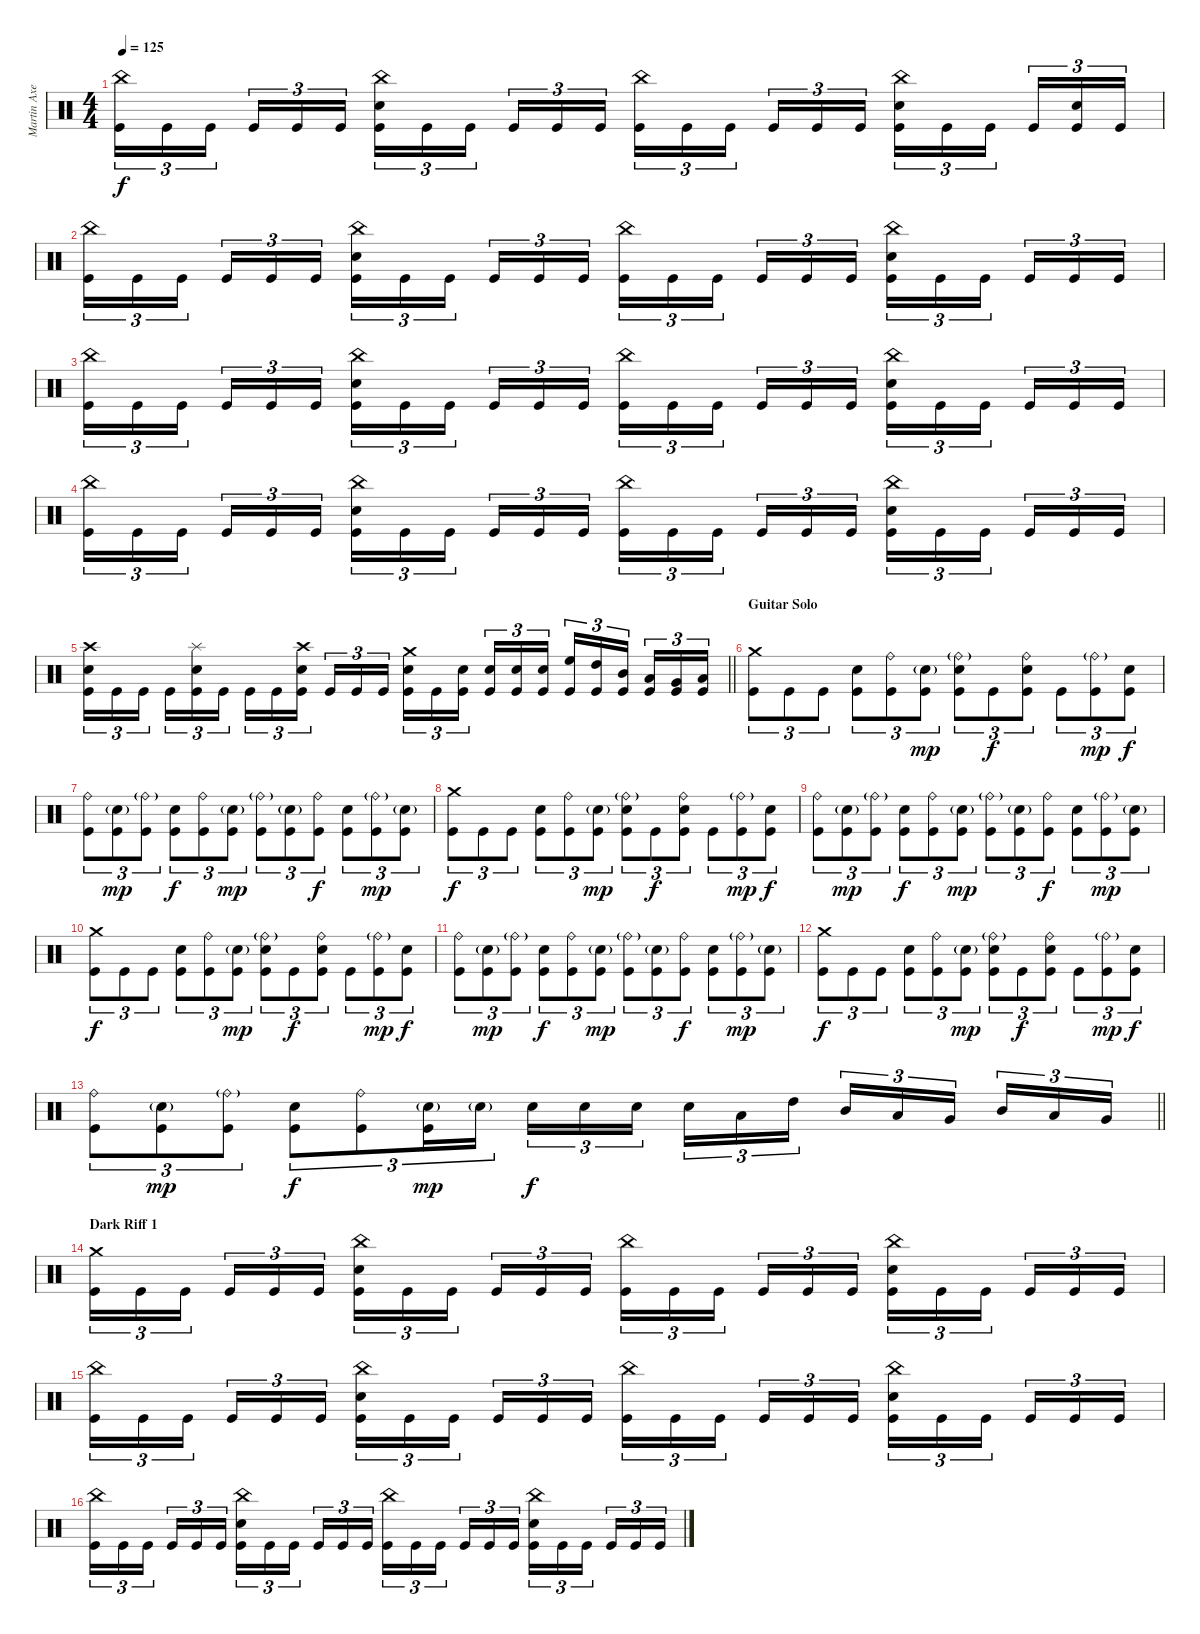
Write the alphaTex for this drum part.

\track ("Martin Axenrot" "Martin Axe") {instrument percussion}
\staff {score}
\articulation defaults
\ts (4 4)
\tempo 125
\clef neutral
\ks c
("China (hit)" "Kick (hit)").16{tu (3 2) dy f} "Kick (hit)".16{tu (3 2)} "Kick (hit)".16{tu (3 2) beam splitsecondary} "Kick (hit)".16{tu (3 2)} "Kick (hit)".16{tu (3 2)} "Kick (hit)".16{tu (3 2)} ("China (hit)" "Snare (hit) 2" "Kick (hit)").16{tu (3 2)} "Kick (hit)".16{tu (3 2)} "Kick (hit)".16{tu (3 2) beam splitsecondary} "Kick (hit)".16{tu (3 2)} "Kick (hit)".16{tu (3 2)} "Kick (hit)".16{tu (3 2)} ("China (hit)" "Kick (hit)").16{tu (3 2)} "Kick (hit)".16{tu (3 2)} "Kick (hit)".16{tu (3 2) beam splitsecondary} "Kick (hit)".16{tu (3 2)} "Kick (hit)".16{tu (3 2)} "Kick (hit)".16{tu (3 2)} ("China (hit)" "Snare (hit) 2" "Kick (hit)").16{tu (3 2)} "Kick (hit)".16{tu (3 2)} "Kick (hit)".16{tu (3 2) beam splitsecondary} "Kick (hit)".16{tu (3 2)} ("Snare (hit) 2" "Kick (hit)").16{tu (3 2)} "Kick (hit)".16{tu (3 2)} |
("China (hit)" "Kick (hit)").16{tu (3 2)} "Kick (hit)".16{tu (3 2)} "Kick (hit)".16{tu (3 2) beam splitsecondary} "Kick (hit)".16{tu (3 2)} "Kick (hit)".16{tu (3 2)} "Kick (hit)".16{tu (3 2)} ("China (hit)" "Snare (hit) 2" "Kick (hit)").16{tu (3 2)} "Kick (hit)".16{tu (3 2)} "Kick (hit)".16{tu (3 2) beam splitsecondary} "Kick (hit)".16{tu (3 2)} "Kick (hit)".16{tu (3 2)} "Kick (hit)".16{tu (3 2)} ("China (hit)" "Kick (hit)").16{tu (3 2)} "Kick (hit)".16{tu (3 2)} "Kick (hit)".16{tu (3 2) beam splitsecondary} "Kick (hit)".16{tu (3 2)} "Kick (hit)".16{tu (3 2)} "Kick (hit)".16{tu (3 2)} ("China (hit)" "Snare (hit) 2" "Kick (hit)").16{tu (3 2)} "Kick (hit)".16{tu (3 2)} "Kick (hit)".16{tu (3 2) beam splitsecondary} "Kick (hit)".16{tu (3 2)} "Kick (hit)".16{tu (3 2)} "Kick (hit)".16{tu (3 2)} |
("China (hit)" "Kick (hit)").16{tu (3 2)} "Kick (hit)".16{tu (3 2)} "Kick (hit)".16{tu (3 2) beam splitsecondary} "Kick (hit)".16{tu (3 2)} "Kick (hit)".16{tu (3 2)} "Kick (hit)".16{tu (3 2)} ("China (hit)" "Snare (hit) 2" "Kick (hit)").16{tu (3 2)} "Kick (hit)".16{tu (3 2)} "Kick (hit)".16{tu (3 2) beam splitsecondary} "Kick (hit)".16{tu (3 2)} "Kick (hit)".16{tu (3 2)} "Kick (hit)".16{tu (3 2)} ("China (hit)" "Kick (hit)").16{tu (3 2)} "Kick (hit)".16{tu (3 2)} "Kick (hit)".16{tu (3 2) beam splitsecondary} "Kick (hit)".16{tu (3 2)} "Kick (hit)".16{tu (3 2)} "Kick (hit)".16{tu (3 2)} ("China (hit)" "Snare (hit) 2" "Kick (hit)").16{tu (3 2)} "Kick (hit)".16{tu (3 2)} "Kick (hit)".16{tu (3 2) beam splitsecondary} "Kick (hit)".16{tu (3 2)} "Kick (hit)".16{tu (3 2)} "Kick (hit)".16{tu (3 2)} |
("China (hit)" "Kick (hit)").16{tu (3 2)} "Kick (hit)".16{tu (3 2)} "Kick (hit)".16{tu (3 2) beam splitsecondary} "Kick (hit)".16{tu (3 2)} "Kick (hit)".16{tu (3 2)} "Kick (hit)".16{tu (3 2)} ("China (hit)" "Snare (hit) 2" "Kick (hit)").16{tu (3 2)} "Kick (hit)".16{tu (3 2)} "Kick (hit)".16{tu (3 2) beam splitsecondary} "Kick (hit)".16{tu (3 2)} "Kick (hit)".16{tu (3 2)} "Kick (hit)".16{tu (3 2)} ("China (hit)" "Kick (hit)").16{tu (3 2)} "Kick (hit)".16{tu (3 2)} "Kick (hit)".16{tu (3 2) beam splitsecondary} "Kick (hit)".16{tu (3 2)} "Kick (hit)".16{tu (3 2)} "Kick (hit)".16{tu (3 2)} ("China (hit)" "Snare (hit) 2" "Kick (hit)").16{tu (3 2)} "Kick (hit)".16{tu (3 2)} "Kick (hit)".16{tu (3 2) beam splitsecondary} "Kick (hit)".16{tu (3 2)} "Kick (hit)".16{tu (3 2)} "Kick (hit)".16{tu (3 2)} |
\barLineRight lightlight
("Crash high (hit)" "Snare (hit) 2" "Kick (hit)").16{tu (3 2)} "Kick (hit)".16{tu (3 2)} "Kick (hit)".16{tu (3 2) beam splitsecondary} "Kick (hit)".16{tu (3 2)} ("Splash (hit)" "Snare (hit) 2" "Kick (hit)").16{tu (3 2)} "Kick (hit)".16{tu (3 2)} "Kick (hit)".16{tu (3 2)} "Kick (hit)".16{tu (3 2)} ("Crash high (hit)" "Snare (hit) 2" "Kick (hit)").16{tu (3 2) beam splitsecondary} "Kick (hit)".16{tu (3 2)} "Kick (hit)".16{tu (3 2)} "Kick (hit)".16{tu (3 2)} ("Crash medium (hit)" "Snare (hit) 2" "Kick (hit)").16{tu (3 2)} "Kick (hit)".16{tu (3 2)} ("Snare (hit) 2" "Kick (hit)").16{tu (3 2) beam splitsecondary} ("Snare (hit) 2" "Kick (hit)").16{tu (3 2)} ("Snare (hit) 2" "Kick (hit)").16{tu (3 2)} ("Snare (hit) 2" "Kick (hit)").16{tu (3 2)} ("High Floor Tom (hit)" "Kick (hit)").16{tu (3 2)} ("High Tom (hit)" "Kick (hit)").16{tu (3 2)} ("Mid Tom (hit)" "Kick (hit)").16{tu (3 2) beam splitsecondary} ("Low Tom (hit)" "Kick (hit)").16{tu (3 2)} ("Very Low Tom (hit)" "Kick (hit)").16{tu (3 2)} ("Low Floor Tom (hit)" "Kick (hit)").16{tu (3 2)} |
\section ("" "Guitar Solo")
("Crash medium (hit)" "Kick (hit)").8{tu (3 2)} "Kick (hit)".8{tu (3 2)} "Kick (hit)".8{tu (3 2)} ("Snare (hit) 2" "Kick (hit)").8{tu (3 2)} ("Ride (bell)" "Kick (hit)").8{tu (3 2)} ("Snare (hit) 2"{g} "Kick (hit)").8{tu (3 2) dy mp} ("Ride (bell)"{g} "Snare (hit) 2" "Kick (hit)").8{tu (3 2)} "Kick (hit)".8{tu (3 2) dy f} ("Ride (bell)" "Snare (hit) 2" "Kick (hit)").8{tu (3 2)} "Kick (hit)".8{tu (3 2)} ("Ride (bell)"{g} "Kick (hit)").8{tu (3 2) dy mp} ("Snare (hit) 2" "Kick (hit)").8{tu (3 2) dy f} |
("Ride (bell)" "Kick (hit)").8{tu (3 2)} ("Snare (hit) 2"{g} "Kick (hit)").8{tu (3 2) dy mp} ("Ride (bell)"{g} "Kick (hit)").8{tu (3 2)} ("Snare (hit) 2" "Kick (hit)").8{tu (3 2) dy f} ("Ride (bell)" "Kick (hit)").8{tu (3 2)} ("Snare (hit) 2"{g} "Kick (hit)").8{tu (3 2) dy mp} ("Ride (bell)"{g} "Kick (hit)").8{tu (3 2)} ("Snare (hit) 2"{g} "Kick (hit)").8{tu (3 2)} ("Ride (bell)" "Kick (hit)").8{tu (3 2) dy f} ("Snare (hit) 2" "Kick (hit)").8{tu (3 2)} ("Ride (bell)"{g} "Kick (hit)").8{tu (3 2) dy mp} ("Snare (hit) 2"{g} "Kick (hit)").8{tu (3 2)} |
("Crash medium (hit)" "Kick (hit)").8{tu (3 2) dy f} "Kick (hit)".8{tu (3 2)} "Kick (hit)".8{tu (3 2)} ("Snare (hit) 2" "Kick (hit)").8{tu (3 2)} ("Ride (bell)" "Kick (hit)").8{tu (3 2)} ("Snare (hit) 2"{g} "Kick (hit)").8{tu (3 2) dy mp} ("Ride (bell)"{g} "Snare (hit) 2" "Kick (hit)").8{tu (3 2)} "Kick (hit)".8{tu (3 2) dy f} ("Ride (bell)" "Snare (hit) 2" "Kick (hit)").8{tu (3 2)} "Kick (hit)".8{tu (3 2)} ("Ride (bell)"{g} "Kick (hit)").8{tu (3 2) dy mp} ("Snare (hit) 2" "Kick (hit)").8{tu (3 2) dy f} |
("Ride (bell)" "Kick (hit)").8{tu (3 2)} ("Snare (hit) 2"{g} "Kick (hit)").8{tu (3 2) dy mp} ("Ride (bell)"{g} "Kick (hit)").8{tu (3 2)} ("Snare (hit) 2" "Kick (hit)").8{tu (3 2) dy f} ("Ride (bell)" "Kick (hit)").8{tu (3 2)} ("Snare (hit) 2"{g} "Kick (hit)").8{tu (3 2) dy mp} ("Ride (bell)"{g} "Kick (hit)").8{tu (3 2)} ("Snare (hit) 2"{g} "Kick (hit)").8{tu (3 2)} ("Ride (bell)" "Kick (hit)").8{tu (3 2) dy f} ("Snare (hit) 2" "Kick (hit)").8{tu (3 2)} ("Ride (bell)"{g} "Kick (hit)").8{tu (3 2) dy mp} ("Snare (hit) 2"{g} "Kick (hit)").8{tu (3 2)} |
("Crash medium (hit)" "Kick (hit)").8{tu (3 2) dy f} "Kick (hit)".8{tu (3 2)} "Kick (hit)".8{tu (3 2)} ("Snare (hit) 2" "Kick (hit)").8{tu (3 2)} ("Ride (bell)" "Kick (hit)").8{tu (3 2)} ("Snare (hit) 2"{g} "Kick (hit)").8{tu (3 2) dy mp} ("Ride (bell)"{g} "Snare (hit) 2" "Kick (hit)").8{tu (3 2)} "Kick (hit)".8{tu (3 2) dy f} ("Ride (bell)" "Snare (hit) 2" "Kick (hit)").8{tu (3 2)} "Kick (hit)".8{tu (3 2)} ("Ride (bell)"{g} "Kick (hit)").8{tu (3 2) dy mp} ("Snare (hit) 2" "Kick (hit)").8{tu (3 2) dy f} |
("Ride (bell)" "Kick (hit)").8{tu (3 2)} ("Snare (hit) 2"{g} "Kick (hit)").8{tu (3 2) dy mp} ("Ride (bell)"{g} "Kick (hit)").8{tu (3 2)} ("Snare (hit) 2" "Kick (hit)").8{tu (3 2) dy f} ("Ride (bell)" "Kick (hit)").8{tu (3 2)} ("Snare (hit) 2"{g} "Kick (hit)").8{tu (3 2) dy mp} ("Ride (bell)"{g} "Kick (hit)").8{tu (3 2)} ("Snare (hit) 2"{g} "Kick (hit)").8{tu (3 2)} ("Ride (bell)" "Kick (hit)").8{tu (3 2) dy f} ("Snare (hit) 2" "Kick (hit)").8{tu (3 2)} ("Ride (bell)"{g} "Kick (hit)").8{tu (3 2) dy mp} ("Snare (hit) 2"{g} "Kick (hit)").8{tu (3 2)} |
("Crash medium (hit)" "Kick (hit)").8{tu (3 2) dy f} "Kick (hit)".8{tu (3 2)} "Kick (hit)".8{tu (3 2)} ("Snare (hit) 2" "Kick (hit)").8{tu (3 2)} ("Ride (bell)" "Kick (hit)").8{tu (3 2)} ("Snare (hit) 2"{g} "Kick (hit)").8{tu (3 2) dy mp} ("Ride (bell)"{g} "Snare (hit) 2" "Kick (hit)").8{tu (3 2)} "Kick (hit)".8{tu (3 2) dy f} ("Ride (bell)" "Snare (hit) 2" "Kick (hit)").8{tu (3 2)} "Kick (hit)".8{tu (3 2)} ("Ride (bell)"{g} "Kick (hit)").8{tu (3 2) dy mp} ("Snare (hit) 2" "Kick (hit)").8{tu (3 2) dy f} |
\barLineRight lightlight
("Ride (bell)" "Kick (hit)").8{tu (3 2)} ("Snare (hit) 2"{g} "Kick (hit)").8{tu (3 2) dy mp} ("Ride (bell)"{g} "Kick (hit)").8{tu (3 2)} ("Snare (hit) 2" "Kick (hit)").8{tu (3 2) dy f} ("Ride (bell)" "Kick (hit)").8{tu (3 2)} ("Snare (hit) 2"{g} "Kick (hit)").16{tu (3 2) dy mp} "Snare (hit) 2"{g}.16{tu (3 2)} "Snare (hit) 2".16{tu (3 2) dy f} "Snare (hit) 2".16{tu (3 2)} "Snare (hit) 2".16{tu (3 2) beam splitsecondary} "Snare (hit) 2".16{tu (3 2)} "Low Tom (hit)".16{tu (3 2)} "High Tom (hit)".16{tu (3 2)} "Mid Tom (hit)".16{tu (3 2)} "Low Tom (hit)".16{tu (3 2)} "Very Low Tom (hit)".16{tu (3 2) beam splitsecondary} "Mid Tom (hit)".16{tu (3 2)} "Low Tom (hit)".16{tu (3 2)} "Very Low Tom (hit)".16{tu (3 2)} |
\section ("" "Dark Riff 1")
("Crash medium (hit)" "Kick (hit)").16{tu (3 2)} "Kick (hit)".16{tu (3 2)} "Kick (hit)".16{tu (3 2) beam splitsecondary} "Kick (hit)".16{tu (3 2)} "Kick (hit)".16{tu (3 2)} "Kick (hit)".16{tu (3 2)} ("China (hit)" "Snare (hit) 2" "Kick (hit)").16{tu (3 2)} "Kick (hit)".16{tu (3 2)} "Kick (hit)".16{tu (3 2) beam splitsecondary} "Kick (hit)".16{tu (3 2)} "Kick (hit)".16{tu (3 2)} "Kick (hit)".16{tu (3 2)} ("China (hit)" "Kick (hit)").16{tu (3 2)} "Kick (hit)".16{tu (3 2)} "Kick (hit)".16{tu (3 2) beam splitsecondary} "Kick (hit)".16{tu (3 2)} "Kick (hit)".16{tu (3 2)} "Kick (hit)".16{tu (3 2)} ("China (hit)" "Snare (hit) 2" "Kick (hit)").16{tu (3 2)} "Kick (hit)".16{tu (3 2)} "Kick (hit)".16{tu (3 2) beam splitsecondary} "Kick (hit)".16{tu (3 2)} "Kick (hit)".16{tu (3 2)} "Kick (hit)".16{tu (3 2)} |
("China (hit)" "Kick (hit)").16{tu (3 2)} "Kick (hit)".16{tu (3 2)} "Kick (hit)".16{tu (3 2) beam splitsecondary} "Kick (hit)".16{tu (3 2)} "Kick (hit)".16{tu (3 2)} "Kick (hit)".16{tu (3 2)} ("China (hit)" "Snare (hit) 2" "Kick (hit)").16{tu (3 2)} "Kick (hit)".16{tu (3 2)} "Kick (hit)".16{tu (3 2) beam splitsecondary} "Kick (hit)".16{tu (3 2)} "Kick (hit)".16{tu (3 2)} "Kick (hit)".16{tu (3 2)} ("China (hit)" "Kick (hit)").16{tu (3 2)} "Kick (hit)".16{tu (3 2)} "Kick (hit)".16{tu (3 2) beam splitsecondary} "Kick (hit)".16{tu (3 2)} "Kick (hit)".16{tu (3 2)} "Kick (hit)".16{tu (3 2)} ("China (hit)" "Snare (hit) 2" "Kick (hit)").16{tu (3 2)} "Kick (hit)".16{tu (3 2)} "Kick (hit)".16{tu (3 2) beam splitsecondary} "Kick (hit)".16{tu (3 2)} "Kick (hit)".16{tu (3 2)} "Kick (hit)".16{tu (3 2)} |
("China (hit)" "Kick (hit)").16{tu (3 2)} "Kick (hit)".16{tu (3 2)} "Kick (hit)".16{tu (3 2) beam splitsecondary} "Kick (hit)".16{tu (3 2)} "Kick (hit)".16{tu (3 2)} "Kick (hit)".16{tu (3 2)} ("China (hit)" "Snare (hit) 2" "Kick (hit)").16{tu (3 2)} "Kick (hit)".16{tu (3 2)} "Kick (hit)".16{tu (3 2) beam splitsecondary} "Kick (hit)".16{tu (3 2)} "Kick (hit)".16{tu (3 2)} "Kick (hit)".16{tu (3 2)} ("China (hit)" "Kick (hit)").16{tu (3 2)} "Kick (hit)".16{tu (3 2)} "Kick (hit)".16{tu (3 2) beam splitsecondary} "Kick (hit)".16{tu (3 2)} "Kick (hit)".16{tu (3 2)} "Kick (hit)".16{tu (3 2)} ("China (hit)" "Snare (hit) 2" "Kick (hit)").16{tu (3 2)} "Kick (hit)".16{tu (3 2)} "Kick (hit)".16{tu (3 2) beam splitsecondary} "Kick (hit)".16{tu (3 2)} "Kick (hit)".16{tu (3 2)} "Kick (hit)".16{tu (3 2)}
